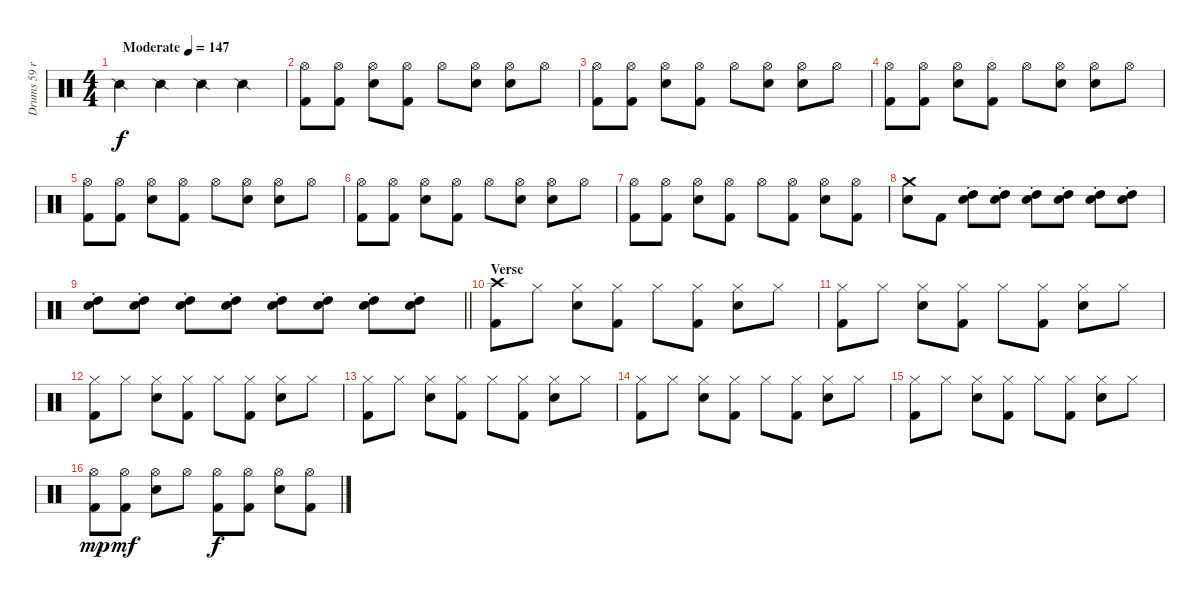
\track ("Drums 59 ride" "Drums 59 r") {mute instrument percussion}
\staff {score}
\articulation defaults
\ts (4 4)
\tempo (147 "Moderate")
\clef neutral
\ks c "Snare (side stick) 2".4{dy f} "Snare (side stick) 2".4 "Snare (side stick) 2".4 "Snare (side stick) 2".4
|
("Hi-Hat (open)" "Kick (hit) 2").8 ("Hi-Hat (open)" "Kick (hit) 2").8 ("Hi-Hat (open)" "Snare (hit) 2").8 ("Hi-Hat (open)" "Kick (hit) 2").8 "Hi-Hat (open)".8 ("Hi-Hat (open)" "Snare (hit) 2").8 ("Hi-Hat (open)" "Snare (hit) 2").8 "Hi-Hat (open)".8 |
("Hi-Hat (open)" "Kick (hit) 2").8 ("Hi-Hat (open)" "Kick (hit) 2").8 ("Hi-Hat (open)" "Snare (hit) 2").8 ("Hi-Hat (open)" "Kick (hit) 2").8 "Hi-Hat (open)".8 ("Hi-Hat (open)" "Snare (hit) 2").8 ("Hi-Hat (open)" "Snare (hit) 2").8 "Hi-Hat (open)".8 |
("Hi-Hat (open)" "Kick (hit) 2").8 ("Hi-Hat (open)" "Kick (hit) 2").8 ("Hi-Hat (open)" "Snare (hit) 2").8 ("Hi-Hat (open)" "Kick (hit) 2").8 "Hi-Hat (open)".8 ("Hi-Hat (open)" "Snare (hit) 2").8 ("Hi-Hat (open)" "Snare (hit) 2").8 "Hi-Hat (open)".8 |
("Hi-Hat (open)" "Kick (hit) 2").8 ("Hi-Hat (open)" "Kick (hit) 2").8 ("Hi-Hat (open)" "Snare (hit) 2").8 ("Hi-Hat (open)" "Kick (hit) 2").8 "Hi-Hat (open)".8 ("Hi-Hat (open)" "Snare (hit) 2").8 ("Hi-Hat (open)" "Snare (hit) 2").8 "Hi-Hat (open)".8 |
("Hi-Hat (open)" "Kick (hit) 2").8 ("Hi-Hat (open)" "Kick (hit) 2").8 ("Hi-Hat (open)" "Snare (hit) 2").8 ("Hi-Hat (open)" "Kick (hit) 2").8 "Hi-Hat (open)".8 ("Hi-Hat (open)" "Snare (hit) 2").8 ("Hi-Hat (open)" "Snare (hit) 2").8 "Hi-Hat (open)".8 |
("Hi-Hat (open)" "Kick (hit) 2").8 ("Hi-Hat (open)" "Kick (hit) 2").8 ("Hi-Hat (open)" "Snare (hit) 2").8 ("Hi-Hat (open)" "Kick (hit) 2").8 "Hi-Hat (open)".8 ("Hi-Hat (open)" "Kick (hit) 2").8 ("Hi-Hat (open)" "Snare (hit) 2").8 ("Hi-Hat (open)" "Kick (hit) 2").8 |
("Crash medium (hit)" "Snare (hit) 2").8 "Kick (hit) 2".8 ("High Tom (hit)" "Snare (hit) 2"{st}).8 ("High Tom (hit)" "Snare (hit) 2"{st}).8 ("High Tom (hit)" "Snare (hit) 2"{st}).8 ("High Tom (hit)" "Snare (hit) 2"{st}).8 ("High Tom (hit)" "Snare (hit) 2"{st}).8 ("High Tom (hit)" "Snare (hit) 2"{st}).8 |
\barLineRight lightlight
("High Tom (hit)" "Snare (hit) 2"{st}).8 ("High Tom (hit)" "Snare (hit) 2"{st}).8 ("High Tom (hit)" "Snare (hit) 2"{st}).8 ("High Tom (hit)" "Snare (hit) 2"{st}).8 ("High Tom (hit)" "Snare (hit) 2"{st}).8 ("High Tom (hit)" "Snare (hit) 2"{st}).8 ("High Tom (hit)" "Snare (hit) 2"{st}).8 ("High Tom (hit)" "Snare (hit) 2"{st}).8 |
\section ("" "Verse")
("Crash high (hit)" "Kick (hit) 2").8 "Hi-Hat (closed)".8 ("Hi-Hat (closed)" "Snare (hit) 2").8 ("Hi-Hat (closed)" "Kick (hit) 2").8 "Hi-Hat (closed)".8 ("Hi-Hat (closed)" "Kick (hit) 2").8 ("Hi-Hat (closed)" "Snare (hit) 2").8 "Hi-Hat (closed)".8 |
("Hi-Hat (closed)" "Kick (hit) 2").8 "Hi-Hat (closed)".8 ("Hi-Hat (closed)" "Snare (hit) 2").8 ("Hi-Hat (closed)" "Kick (hit) 2").8 "Hi-Hat (closed)".8 ("Hi-Hat (closed)" "Kick (hit) 2").8 ("Hi-Hat (closed)" "Snare (hit) 2").8 "Hi-Hat (closed)".8 |
("Hi-Hat (closed)" "Kick (hit) 2").8 "Hi-Hat (closed)".8 ("Hi-Hat (closed)" "Snare (hit) 2").8 ("Hi-Hat (closed)" "Kick (hit) 2").8 "Hi-Hat (closed)".8 ("Hi-Hat (closed)" "Kick (hit) 2").8 ("Hi-Hat (closed)" "Snare (hit) 2").8 "Hi-Hat (closed)".8 |
("Hi-Hat (closed)" "Kick (hit) 2").8 "Hi-Hat (closed)".8 ("Hi-Hat (closed)" "Snare (hit) 2").8 ("Hi-Hat (closed)" "Kick (hit) 2").8 "Hi-Hat (closed)".8 ("Hi-Hat (closed)" "Kick (hit) 2").8 ("Hi-Hat (closed)" "Snare (hit) 2").8 "Hi-Hat (closed)".8 |
("Hi-Hat (closed)" "Kick (hit) 2").8 "Hi-Hat (closed)".8 ("Hi-Hat (closed)" "Snare (hit) 2").8 ("Hi-Hat (closed)" "Kick (hit) 2").8 "Hi-Hat (closed)".8 ("Hi-Hat (closed)" "Kick (hit) 2").8 ("Hi-Hat (closed)" "Snare (hit) 2").8 "Hi-Hat (closed)".8 |
("Hi-Hat (closed)" "Kick (hit) 2").8 "Hi-Hat (closed)".8 ("Hi-Hat (closed)" "Snare (hit) 2").8 ("Hi-Hat (closed)" "Kick (hit) 2").8 "Hi-Hat (closed)".8 ("Hi-Hat (closed)" "Kick (hit) 2").8 ("Hi-Hat (closed)" "Snare (hit) 2").8 "Hi-Hat (closed)".8 |
("Hi-Hat (open)" "Kick (hit) 2").8{dy mp} ("Hi-Hat (open)" "Kick (hit) 2").8{dy mf} ("Hi-Hat (open)" "Snare (hit) 2").8 "Hi-Hat (open)".8 ("Hi-Hat (open)" "Kick (hit) 2").8{dy f} ("Hi-Hat (open)" "Kick (hit) 2").8 ("Hi-Hat (open)" "Snare (hit) 2").8 ("Hi-Hat (open)" "Kick (hit) 2").8
